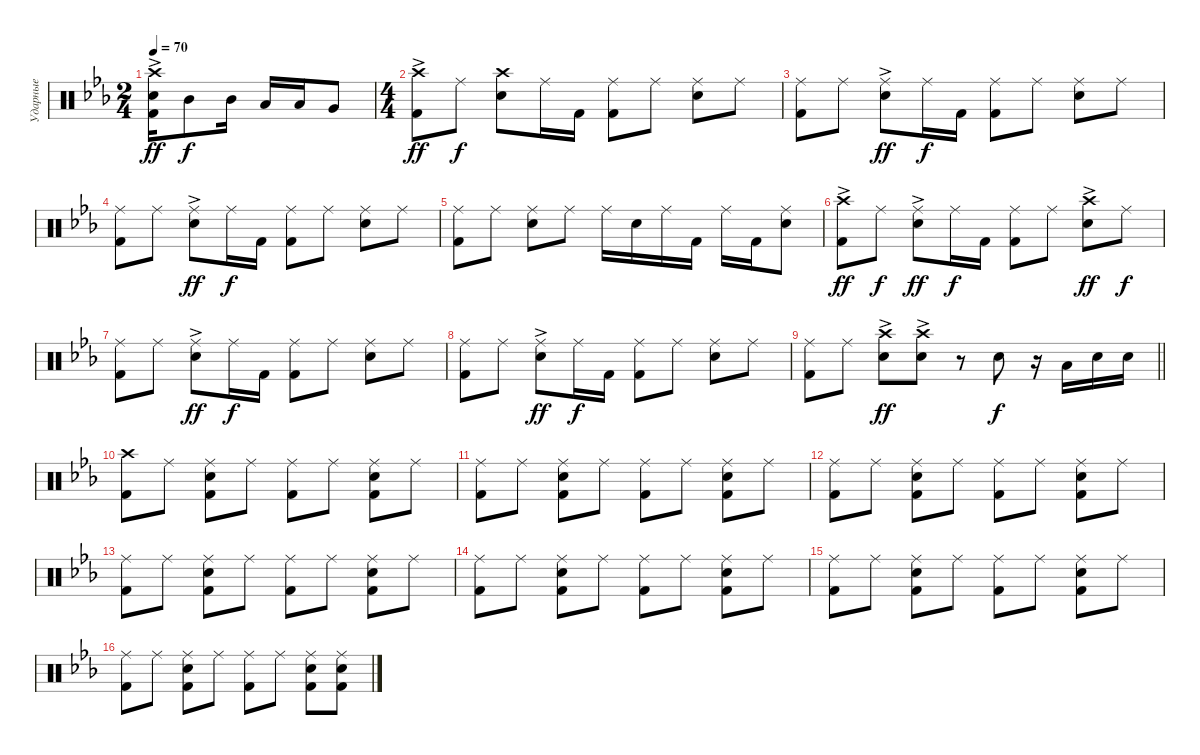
\track ("Ударные" "Ударные") {instrument percussion}
\staff {score}
\articulation defaults
\ts (2 4)
\tempo 70
\clef neutral
\ks eb
("Kick (hit) 2" "Snare (hit) 2" "Crash high (hit)"{ac}).16{dy ff} "Mid Tom (hit)".8{dy f} "Mid Tom (hit)".16 "Low Tom (hit)".16 "Low Tom (hit)".16 "Very Low Tom (hit)".8 |
\ts (4 4)
("Kick (hit) 2" "Crash high (hit)"{ac}).8{dy ff} "Ride (middle)".8{dy f} ("Snare (hit) 2" "Crash high (hit)").8 "Ride (middle)".16 "Kick (hit) 2".16 ("Kick (hit) 2" "Ride (middle)").8 "Ride (middle)".8 ("Snare (hit) 2" "Ride (middle)").8 "Ride (middle)".8 |
("Kick (hit) 2" "Ride (middle)").8 "Ride (middle)".8 ("Snare (hit) 2" "Ride (middle)"{ac}).8{dy ff} "Ride (middle)".16{dy f} "Kick (hit) 2".16 ("Kick (hit) 2" "Ride (middle)").8 "Ride (middle)".8 ("Snare (hit) 2" "Ride (middle)").8 "Ride (middle)".8 |
("Kick (hit) 2" "Ride (middle)").8 "Ride (middle)".8 ("Snare (hit) 2" "Ride (middle)"{ac}).8{dy ff} "Ride (middle)".16{dy f} "Kick (hit) 2".16 ("Kick (hit) 2" "Ride (middle)").8 "Ride (middle)".8 ("Snare (hit) 2" "Ride (middle)").8 "Ride (middle)".8 |
("Kick (hit) 2" "Ride (middle)").8 "Ride (middle)".8 ("Snare (hit) 2" "Ride (middle)").8 "Ride (middle)".8 "Ride (middle)".16 "Snare (hit) 2".16 "Ride (middle)".16 "Kick (hit) 2".16 "Ride (middle)".16 "Kick (hit) 2".16 ("Snare (hit) 2" "Ride (middle)").8 |
("Kick (hit) 2" "Crash high (hit)"{ac}).8{dy ff} "Ride (middle)".8{dy f} ("Snare (hit) 2" "Ride (middle)"{ac}).8{dy ff} "Ride (middle)".16{dy f} "Kick (hit) 2".16 ("Kick (hit) 2" "Ride (middle)").8 "Ride (middle)".8 ("Snare (hit) 2" "Crash high (hit)"{ac}).8{dy ff} "Ride (middle)".8{dy f} |
("Kick (hit) 2" "Ride (middle)").8 "Ride (middle)".8 ("Snare (hit) 2" "Ride (middle)"{ac}).8{dy ff} "Ride (middle)".16{dy f} "Kick (hit) 2".16 ("Kick (hit) 2" "Ride (middle)").8 "Ride (middle)".8 ("Snare (hit) 2" "Ride (middle)").8 "Ride (middle)".8 |
("Kick (hit) 2" "Ride (middle)").8 "Ride (middle)".8 ("Snare (hit) 2" "Ride (middle)"{ac}).8{dy ff} "Ride (middle)".16{dy f} "Kick (hit) 2".16 ("Kick (hit) 2" "Ride (middle)").8 "Ride (middle)".8 ("Snare (hit) 2" "Ride (middle)").8 "Ride (middle)".8 |
\barLineRight lightlight
("Kick (hit) 2" "Ride (middle)").8 "Ride (middle)".8 ("Snare (hit) 2" "Crash high (hit)"{ac}).8{dy ff} ("Snare (hit) 2" "Crash high (hit)"{ac}).8 r.8 "Snare (hit) 2".8{dy f} r.16 "Low Tom (hit)".16 "Snare (hit) 2".16 "Snare (hit) 2".16 |
("Kick (hit) 2" "Crash high (hit)").8 "Ride (middle)".8 ("Kick (hit) 2" "Snare (hit) 2" "Ride (middle)").8 "Ride (middle)".8 ("Kick (hit) 2" "Ride (middle)").8 "Ride (middle)".8 ("Kick (hit) 2" "Snare (hit) 2" "Ride (middle)").8 "Ride (middle)".8 |
("Kick (hit) 2" "Ride (middle)").8 "Ride (middle)".8 ("Kick (hit) 2" "Snare (hit) 2" "Ride (middle)").8 "Ride (middle)".8 ("Kick (hit) 2" "Ride (middle)").8 "Ride (middle)".8 ("Kick (hit) 2" "Snare (hit) 2" "Ride (middle)").8 "Ride (middle)".8 |
("Kick (hit) 2" "Ride (middle)").8 "Ride (middle)".8 ("Kick (hit) 2" "Snare (hit) 2" "Ride (middle)").8 "Ride (middle)".8 ("Kick (hit) 2" "Ride (middle)").8 "Ride (middle)".8 ("Kick (hit) 2" "Snare (hit) 2" "Ride (middle)").8 "Ride (middle)".8 |
("Kick (hit) 2" "Ride (middle)").8 "Ride (middle)".8 ("Kick (hit) 2" "Snare (hit) 2" "Ride (middle)").8 "Ride (middle)".8 ("Kick (hit) 2" "Ride (middle)").8 "Ride (middle)".8 ("Kick (hit) 2" "Snare (hit) 2" "Ride (middle)").8 "Ride (middle)".8 |
("Kick (hit) 2" "Ride (middle)").8 "Ride (middle)".8 ("Kick (hit) 2" "Snare (hit) 2" "Ride (middle)").8 "Ride (middle)".8 ("Kick (hit) 2" "Ride (middle)").8 "Ride (middle)".8 ("Kick (hit) 2" "Snare (hit) 2" "Ride (middle)").8 "Ride (middle)".8 |
("Kick (hit) 2" "Ride (middle)").8 "Ride (middle)".8 ("Kick (hit) 2" "Snare (hit) 2" "Ride (middle)").8 "Ride (middle)".8 ("Kick (hit) 2" "Ride (middle)").8 "Ride (middle)".8 ("Kick (hit) 2" "Snare (hit) 2" "Ride (middle)").8 "Ride (middle)".8 |
("Kick (hit) 2" "Ride (middle)").8 "Ride (middle)".8 ("Kick (hit) 2" "Snare (hit) 2" "Ride (middle)").8 "Ride (middle)".8 ("Kick (hit) 2" "Ride (middle)").8 "Ride (middle)".8 ("Kick (hit) 2" "Snare (hit) 2" "Ride (middle)").8 ("Kick (hit) 2" "Snare (hit) 2" "Ride (middle)").8
